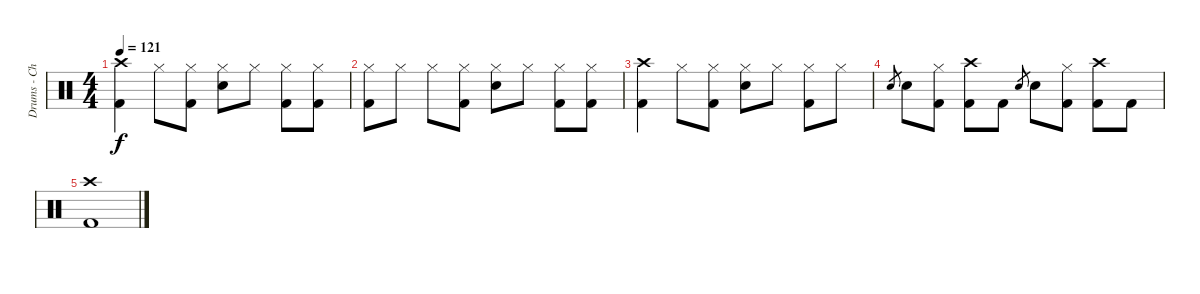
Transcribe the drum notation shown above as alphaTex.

\track ("Drums - Chad" "Drums - Ch") {instrument percussion}
\staff {score}
\articulation defaults
\ts (4 4)
\tempo 121
\clef neutral
\ks c
("Crash high (hit)" "Kick (hit) 2").4{dy f} "Hi-Hat (closed)".8 ("Hi-Hat (closed)" "Kick (hit) 2").8 ("Hi-Hat (closed)" "Electric Snare (hit)").8 "Hi-Hat (closed)".8 ("Hi-Hat (closed)" "Kick (hit) 2").8 ("Hi-Hat (closed)" "Kick (hit) 2").8 |
("Hi-Hat (closed)" "Kick (hit) 2").8 "Hi-Hat (closed)".8 "Hi-Hat (closed)".8 ("Hi-Hat (closed)" "Kick (hit) 2").8 ("Hi-Hat (closed)" "Electric Snare (hit)").8 "Hi-Hat (closed)".8 ("Hi-Hat (closed)" "Kick (hit) 2").8 ("Hi-Hat (closed)" "Kick (hit) 2").8 |
("Crash high (hit)" "Kick (hit) 2").4 "Hi-Hat (closed)".8 ("Hi-Hat (closed)" "Kick (hit) 2").8 ("Hi-Hat (closed)" "Electric Snare (hit)").8 "Hi-Hat (closed)".8 ("Hi-Hat (closed)" "Kick (hit) 2").8 "Hi-Hat (closed)".8 |
"Electric Snare (hit)"{sl}.8{gr} "Electric Snare (hit)".8 ("Hi-Hat (closed)" "Kick (hit) 2").8 ("Crash high (hit)" "Kick (hit) 2").8 "Kick (hit) 2".8 "Electric Snare (hit)"{sl}.8{gr} "Electric Snare (hit)".8 ("Hi-Hat (closed)" "Kick (hit) 2").8 ("Crash high (hit)" "Kick (hit) 2").8 "Kick (hit) 2".8 |
("Crash high (hit)" "Kick (hit) 2").1
